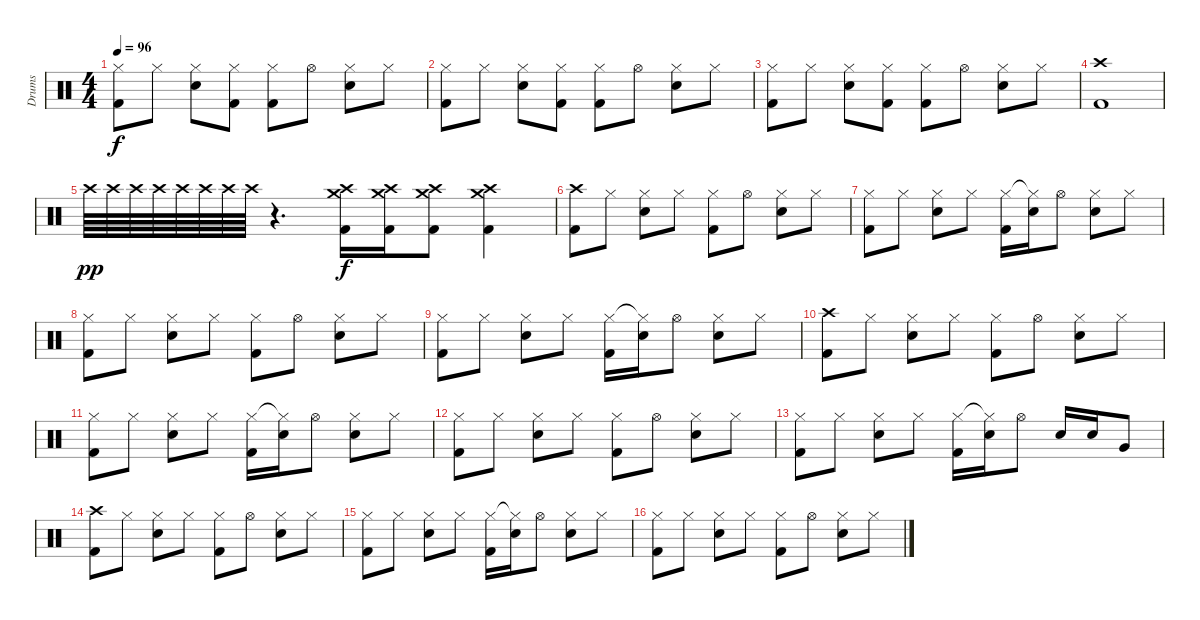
\track ("Drums" "Drums") {instrument percussion}
\staff {score}
\articulation defaults
\ts (4 4)
\tempo 96
\clef neutral
\ks c
("Hi-Hat (closed)" "Kick (hit) 2").8{dy f} "Hi-Hat (closed)".8 ("Hi-Hat (closed)" "Electric Snare (hit)").8 ("Hi-Hat (closed)" "Kick (hit) 2").8 ("Hi-Hat (closed)" "Kick (hit) 2").8 "Hi-Hat (open)".8 ("Hi-Hat (closed)" "Electric Snare (hit)").8 "Hi-Hat (closed)".8 |
("Hi-Hat (closed)" "Kick (hit) 2").8 "Hi-Hat (closed)".8 ("Hi-Hat (closed)" "Electric Snare (hit)").8 ("Hi-Hat (closed)" "Kick (hit) 2").8 ("Hi-Hat (closed)" "Kick (hit) 2").8 "Hi-Hat (open)".8 ("Hi-Hat (closed)" "Electric Snare (hit)").8 "Hi-Hat (closed)".8 |
("Hi-Hat (closed)" "Kick (hit) 2").8 "Hi-Hat (closed)".8 ("Hi-Hat (closed)" "Electric Snare (hit)").8 ("Hi-Hat (closed)" "Kick (hit) 2").8 ("Hi-Hat (closed)" "Kick (hit) 2").8 "Hi-Hat (open)".8 ("Hi-Hat (closed)" "Electric Snare (hit)").8 "Hi-Hat (closed)".8 |
("Crash high (hit)" "Kick (hit) 2").1 |
"Crash high (hit)".64{dy pp} "Crash high (hit)".64 "Crash high (hit)".64 "Crash high (hit)".64 "Crash high (hit)".64 "Crash high (hit)".64 "Crash high (hit)".64 "Crash high (hit)".64 r.4{d} ("Crash high (hit)" "Crash medium (hit)" "Kick (hit) 2").16{dy f} ("Crash high (hit)" "Crash medium (hit)" "Kick (hit) 2").16 ("Crash high (hit)" "Crash medium (hit)" "Kick (hit) 2").8 ("Crash high (hit)" "Crash medium (hit)" "Kick (hit) 2").4 |
("Crash high (hit)" "Kick (hit) 2").8 "Hi-Hat (closed)".8 ("Hi-Hat (closed)" "Electric Snare (hit)").8 "Hi-Hat (closed)".8 ("Hi-Hat (closed)" "Kick (hit) 2").8 "Hi-Hat (open)".8 ("Hi-Hat (closed)" "Electric Snare (hit)").8 "Hi-Hat (closed)".8 |
("Hi-Hat (closed)" "Kick (hit) 2").8 "Hi-Hat (closed)".8 ("Hi-Hat (closed)" "Electric Snare (hit)").8 "Hi-Hat (closed)".8 ("Hi-Hat (closed)" "Kick (hit) 2").16 ("Hi-Hat (closed)"{t} "Electric Snare (hit)").16 "Hi-Hat (open)".8 ("Hi-Hat (closed)" "Electric Snare (hit)").8 "Hi-Hat (closed)".8 |
("Hi-Hat (closed)" "Kick (hit) 2").8 "Hi-Hat (closed)".8 ("Hi-Hat (closed)" "Electric Snare (hit)").8 "Hi-Hat (closed)".8 ("Hi-Hat (closed)" "Kick (hit) 2").8 "Hi-Hat (open)".8 ("Hi-Hat (closed)" "Electric Snare (hit)").8 "Hi-Hat (closed)".8 |
("Hi-Hat (closed)" "Kick (hit) 2").8 "Hi-Hat (closed)".8 ("Hi-Hat (closed)" "Electric Snare (hit)").8 "Hi-Hat (closed)".8 ("Hi-Hat (closed)" "Kick (hit) 2").16 ("Hi-Hat (closed)"{t} "Electric Snare (hit)").16 "Hi-Hat (open)".8 ("Hi-Hat (closed)" "Electric Snare (hit)").8 "Hi-Hat (closed)".8 |
("Crash high (hit)" "Kick (hit) 2").8 "Hi-Hat (closed)".8 ("Hi-Hat (closed)" "Electric Snare (hit)").8 "Hi-Hat (closed)".8 ("Hi-Hat (closed)" "Kick (hit) 2").8 "Hi-Hat (open)".8 ("Hi-Hat (closed)" "Electric Snare (hit)").8 "Hi-Hat (closed)".8 |
("Hi-Hat (closed)" "Kick (hit) 2").8 "Hi-Hat (closed)".8 ("Hi-Hat (closed)" "Electric Snare (hit)").8 "Hi-Hat (closed)".8 ("Hi-Hat (closed)" "Kick (hit) 2").16 ("Hi-Hat (closed)"{t} "Electric Snare (hit)").16 "Hi-Hat (open)".8 ("Hi-Hat (closed)" "Electric Snare (hit)").8 "Hi-Hat (closed)".8 |
("Hi-Hat (closed)" "Kick (hit) 2").8 "Hi-Hat (closed)".8 ("Hi-Hat (closed)" "Electric Snare (hit)").8 "Hi-Hat (closed)".8 ("Hi-Hat (closed)" "Kick (hit) 2").8 "Hi-Hat (open)".8 ("Hi-Hat (closed)" "Electric Snare (hit)").8 "Hi-Hat (closed)".8 |
("Hi-Hat (closed)" "Kick (hit) 2").8 "Hi-Hat (closed)".8 ("Hi-Hat (closed)" "Electric Snare (hit)").8 "Hi-Hat (closed)".8 ("Hi-Hat (closed)" "Kick (hit) 2").16 ("Hi-Hat (closed)"{t} "Electric Snare (hit)").16 "Hi-Hat (open)".8 "Electric Snare (hit)".16 "Electric Snare (hit)".16 "Very Low Tom (hit)".8 |
("Crash high (hit)" "Kick (hit) 2").8 "Hi-Hat (closed)".8 ("Hi-Hat (closed)" "Electric Snare (hit)").8 "Hi-Hat (closed)".8 ("Hi-Hat (closed)" "Kick (hit) 2").8 "Hi-Hat (open)".8 ("Hi-Hat (closed)" "Electric Snare (hit)").8 "Hi-Hat (closed)".8 |
("Hi-Hat (closed)" "Kick (hit) 2").8 "Hi-Hat (closed)".8 ("Hi-Hat (closed)" "Electric Snare (hit)").8 "Hi-Hat (closed)".8 ("Hi-Hat (closed)" "Kick (hit) 2").16 ("Hi-Hat (closed)"{t} "Electric Snare (hit)").16 "Hi-Hat (open)".8 ("Hi-Hat (closed)" "Electric Snare (hit)").8 "Hi-Hat (closed)".8 |
("Hi-Hat (closed)" "Kick (hit) 2").8 "Hi-Hat (closed)".8 ("Hi-Hat (closed)" "Electric Snare (hit)").8 "Hi-Hat (closed)".8 ("Hi-Hat (closed)" "Kick (hit) 2").8 "Hi-Hat (open)".8 ("Hi-Hat (closed)" "Electric Snare (hit)").8 "Hi-Hat (closed)".8
